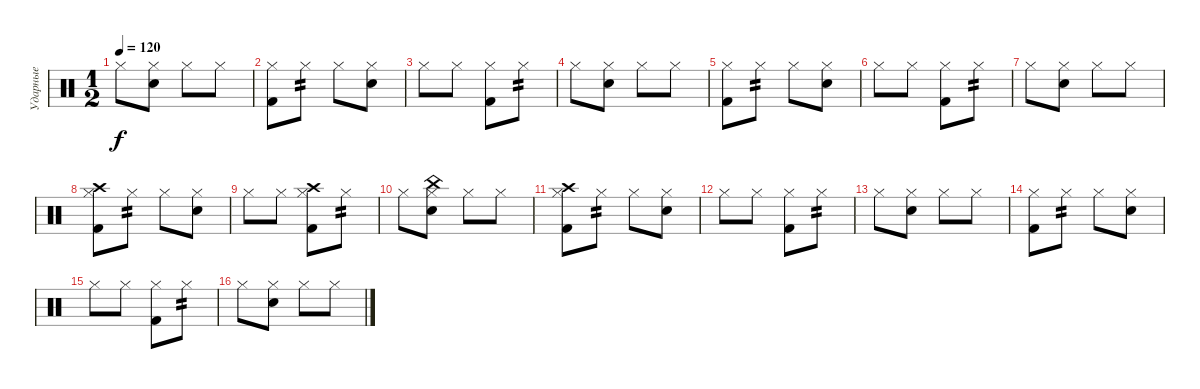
\track ("Ударные" "Ударные") {instrument percussion}
\staff {score}
\articulation defaults
\ts (1 2)
\tempo 120
\clef neutral
\ks c "Hi-Hat (closed)".8{dy f}
("Hi-Hat (closed)" "Snare (hit) 2").8 "Hi-Hat (closed)".8 "Hi-Hat (closed)".8 |
("Hi-Hat (closed)" "Kick (hit) 2").8 "Hi-Hat (closed)".8{tp 2} "Hi-Hat (closed)".8 ("Hi-Hat (closed)" "Snare (hit) 2").8 |
"Hi-Hat (closed)".8 "Hi-Hat (closed)".8 ("Hi-Hat (closed)" "Kick (hit) 2").8 "Hi-Hat (closed)".8{tp 2} |
"Hi-Hat (closed)".8 ("Hi-Hat (closed)" "Snare (hit) 2").8 "Hi-Hat (closed)".8 "Hi-Hat (closed)".8 |
("Hi-Hat (closed)" "Kick (hit) 2").8 "Hi-Hat (closed)".8{tp 2} "Hi-Hat (closed)".8 ("Hi-Hat (closed)" "Snare (hit) 2").8 |
"Hi-Hat (closed)".8 "Hi-Hat (closed)".8 ("Hi-Hat (closed)" "Kick (hit) 2").8 "Hi-Hat (closed)".8{tp 2} |
"Hi-Hat (closed)".8 ("Hi-Hat (closed)" "Snare (hit) 2").8 "Hi-Hat (closed)".8 "Hi-Hat (closed)".8 |
("Crash high (hit)" "Hi-Hat (closed)" "Kick (hit) 2").8 "Hi-Hat (closed)".8{tp 2} "Hi-Hat (closed)".8 ("Hi-Hat (closed)" "Snare (hit) 2").8 |
"Hi-Hat (closed)".8 "Hi-Hat (closed)".8 ("Crash high (hit)" "Hi-Hat (closed)" "Kick (hit) 2").8 "Hi-Hat (closed)".8{tp 2} |
"Hi-Hat (closed)".8 ("China (hit)" "Hi-Hat (closed)" "Snare (hit) 2").8 "Hi-Hat (closed)".8 "Hi-Hat (closed)".8 |
("Crash high (hit)" "Hi-Hat (closed)" "Kick (hit) 2").8 "Hi-Hat (closed)".8{tp 2} "Hi-Hat (closed)".8 ("Hi-Hat (closed)" "Snare (hit) 2").8 |
"Hi-Hat (closed)".8 "Hi-Hat (closed)".8 ("Hi-Hat (closed)" "Kick (hit) 2").8 "Hi-Hat (closed)".8{tp 2} |
"Hi-Hat (closed)".8 ("Hi-Hat (closed)" "Snare (hit) 2").8 "Hi-Hat (closed)".8 "Hi-Hat (closed)".8 |
("Hi-Hat (closed)" "Kick (hit) 2").8 "Hi-Hat (closed)".8{tp 2} "Hi-Hat (closed)".8 ("Hi-Hat (closed)" "Snare (hit) 2").8 |
"Hi-Hat (closed)".8 "Hi-Hat (closed)".8 ("Hi-Hat (closed)" "Kick (hit) 2").8 "Hi-Hat (closed)".8{tp 2} |
"Hi-Hat (closed)".8 ("Hi-Hat (closed)" "Snare (hit) 2").8 "Hi-Hat (closed)".8 "Hi-Hat (closed)".8
